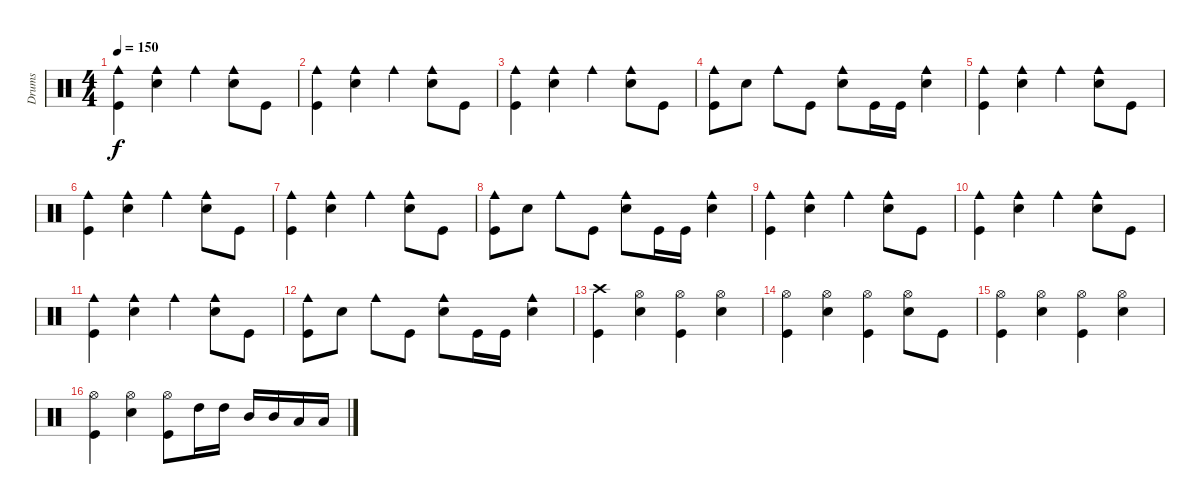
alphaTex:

\track ("Drums" "Drums") {instrument percussion}
\staff {score}
\articulation defaults
\ts (4 4)
\tempo 150
\clef neutral
\ks c
("Cowbell medium (hit)" "Kick (hit)").4{dy f} ("Cowbell medium (hit)" "Electric Snare (hit)").4 "Cowbell medium (hit)".4 ("Cowbell medium (hit)" "Electric Snare (hit)").8 "Kick (hit)".8 |
("Cowbell medium (hit)" "Kick (hit)").4 ("Cowbell medium (hit)" "Electric Snare (hit)").4 "Cowbell medium (hit)".4 ("Cowbell medium (hit)" "Electric Snare (hit)").8 "Kick (hit)".8 |
("Cowbell medium (hit)" "Kick (hit)").4 ("Cowbell medium (hit)" "Electric Snare (hit)").4 "Cowbell medium (hit)".4 ("Cowbell medium (hit)" "Electric Snare (hit)").8 "Kick (hit)".8 |
("Cowbell medium (hit)" "Kick (hit)").8 "Electric Snare (hit)".8 "Cowbell medium (hit)".8 "Kick (hit)".8 ("Cowbell medium (hit)" "Electric Snare (hit)").8 "Kick (hit)".16 "Kick (hit)".16 ("Cowbell medium (hit)" "Electric Snare (hit)").4 |
("Cowbell medium (hit)" "Kick (hit)").4 ("Cowbell medium (hit)" "Electric Snare (hit)").4 "Cowbell medium (hit)".4 ("Cowbell medium (hit)" "Electric Snare (hit)").8 "Kick (hit)".8 |
("Cowbell medium (hit)" "Kick (hit)").4 ("Cowbell medium (hit)" "Electric Snare (hit)").4 "Cowbell medium (hit)".4 ("Cowbell medium (hit)" "Electric Snare (hit)").8 "Kick (hit)".8 |
("Cowbell medium (hit)" "Kick (hit)").4 ("Cowbell medium (hit)" "Electric Snare (hit)").4 "Cowbell medium (hit)".4 ("Cowbell medium (hit)" "Electric Snare (hit)").8 "Kick (hit)".8 |
("Cowbell medium (hit)" "Kick (hit)").8 "Electric Snare (hit)".8 "Cowbell medium (hit)".8 "Kick (hit)".8 ("Cowbell medium (hit)" "Electric Snare (hit)").8 "Kick (hit)".16 "Kick (hit)".16 ("Cowbell medium (hit)" "Electric Snare (hit)").4 |
("Cowbell medium (hit)" "Kick (hit)").4 ("Cowbell medium (hit)" "Electric Snare (hit)").4 "Cowbell medium (hit)".4 ("Cowbell medium (hit)" "Electric Snare (hit)").8 "Kick (hit)".8 |
("Cowbell medium (hit)" "Kick (hit)").4 ("Cowbell medium (hit)" "Electric Snare (hit)").4 "Cowbell medium (hit)".4 ("Cowbell medium (hit)" "Electric Snare (hit)").8 "Kick (hit)".8 |
("Cowbell medium (hit)" "Kick (hit)").4 ("Cowbell medium (hit)" "Electric Snare (hit)").4 "Cowbell medium (hit)".4 ("Cowbell medium (hit)" "Electric Snare (hit)").8 "Kick (hit)".8 |
("Cowbell medium (hit)" "Kick (hit)").8 "Electric Snare (hit)".8 "Cowbell medium (hit)".8 "Kick (hit)".8 ("Cowbell medium (hit)" "Electric Snare (hit)").8 "Kick (hit)".16 "Kick (hit)".16 ("Cowbell medium (hit)" "Electric Snare (hit)").4 |
("Crash high (hit)" "Kick (hit)").4 ("Hi-Hat (open)" "Electric Snare (hit)").4 ("Hi-Hat (open)" "Kick (hit)").4 ("Hi-Hat (open)" "Electric Snare (hit)").4 |
("Hi-Hat (open)" "Kick (hit)").4 ("Hi-Hat (open)" "Electric Snare (hit)").4 ("Hi-Hat (open)" "Kick (hit)").4 ("Hi-Hat (open)" "Electric Snare (hit)").8 "Kick (hit)".8 |
("Hi-Hat (open)" "Kick (hit)").4 ("Hi-Hat (open)" "Electric Snare (hit)").4 ("Hi-Hat (open)" "Kick (hit)").4 ("Hi-Hat (open)" "Electric Snare (hit)").4 |
("Hi-Hat (open)" "Kick (hit)").4 ("Hi-Hat (open)" "Electric Snare (hit)").4 ("Hi-Hat (open)" "Kick (hit)").8 "High Tom (hit)".16 "High Tom (hit)".16 "Mid Tom (hit)".16 "Mid Tom (hit)".16 "Low Tom (hit)".16 "Low Tom (hit)".16
